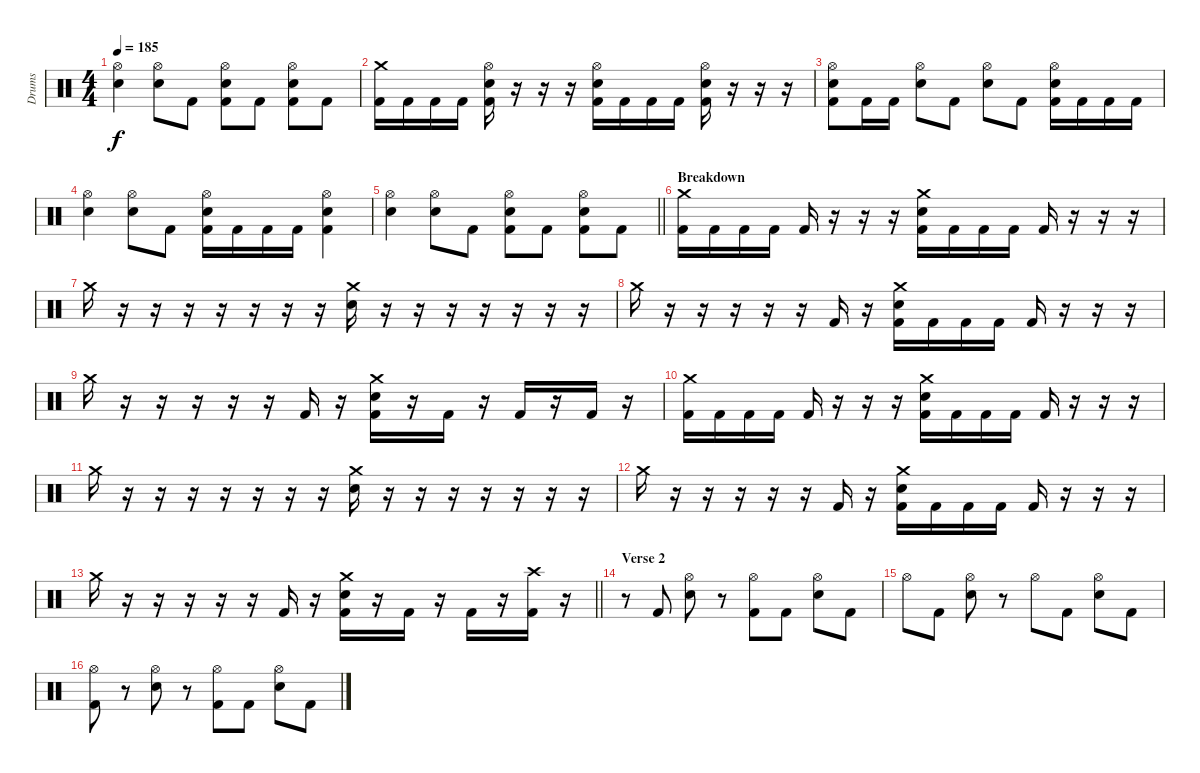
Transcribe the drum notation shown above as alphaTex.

\track ("Drums" "Drums") {instrument percussion}
\staff {score}
\articulation defaults
\ts (4 4)
\tempo 185
\clef neutral
\ks c
("Hi-Hat (open)" "Electric Snare (hit)").4{dy f} ("Hi-Hat (open)" "Electric Snare (hit)").8 "Kick (hit) 2".8 ("Hi-Hat (open)" "Electric Snare (hit)" "Kick (hit) 2").8 "Kick (hit) 2".8 ("Hi-Hat (open)" "Electric Snare (hit)" "Kick (hit) 2").8 "Kick (hit) 2".8 |
("Crash medium (hit)" "Kick (hit) 2").16 "Kick (hit) 2".16 "Kick (hit) 2".16 "Kick (hit) 2".16 ("Hi-Hat (open)" "Electric Snare (hit)" "Kick (hit) 2").16 r.16 r.16 r.16 ("Hi-Hat (open)" "Electric Snare (hit)" "Kick (hit) 2").16 "Kick (hit) 2".16 "Kick (hit) 2".16 "Kick (hit) 2".16 ("Hi-Hat (open)" "Electric Snare (hit)" "Kick (hit) 2").16 r.16 r.16 r.16 |
("Hi-Hat (open)" "Electric Snare (hit)" "Kick (hit) 2").8 "Kick (hit) 2".16 "Kick (hit) 2".16 ("Hi-Hat (open)" "Electric Snare (hit)").8 "Kick (hit) 2".8 ("Hi-Hat (open)" "Electric Snare (hit)").8 "Kick (hit) 2".8 ("Hi-Hat (open)" "Electric Snare (hit)" "Kick (hit) 2").16 "Kick (hit) 2".16 "Kick (hit) 2".16 "Kick (hit) 2".16 |
("Hi-Hat (open)" "Electric Snare (hit)").4 ("Hi-Hat (open)" "Electric Snare (hit)").8 "Kick (hit) 2".8 ("Hi-Hat (open)" "Electric Snare (hit)" "Kick (hit) 2").16 "Kick (hit) 2".16 "Kick (hit) 2".16 "Kick (hit) 2".16 ("Hi-Hat (open)" "Electric Snare (hit)" "Kick (hit) 2").4 |
\barLineRight lightlight
("Hi-Hat (open)" "Electric Snare (hit)").4 ("Hi-Hat (open)" "Electric Snare (hit)").8 "Kick (hit) 2".8 ("Hi-Hat (open)" "Electric Snare (hit)" "Kick (hit) 2").8 "Kick (hit) 2".8 ("Hi-Hat (open)" "Electric Snare (hit)" "Kick (hit) 2").8 "Kick (hit) 2".8 |
\section ("" "Breakdown")
("Crash medium (hit)" "Kick (hit) 2").16 "Kick (hit) 2".16 "Kick (hit) 2".16 "Kick (hit) 2".16 "Kick (hit) 2".16 r.16 r.16 r.16 ("Crash medium (hit)" "Electric Snare (hit)" "Kick (hit) 2").16 "Kick (hit) 2".16 "Kick (hit) 2".16 "Kick (hit) 2".16 "Kick (hit) 2".16 r.16 r.16 r.16 |
"Crash medium (hit)".16 r.16 r.16 r.16 r.16 r.16 r.16 r.16 ("Crash medium (hit)" "Electric Snare (hit)").16 r.16 r.16 r.16 r.16 r.16 r.16 r.16 |
"Crash medium (hit)".16 r.16 r.16 r.16 r.16 r.16 "Kick (hit) 2".16 r.16 ("Crash medium (hit)" "Electric Snare (hit)" "Kick (hit) 2").16 "Kick (hit) 2".16 "Kick (hit) 2".16 "Kick (hit) 2".16 "Kick (hit) 2".16 r.16 r.16 r.16 |
"Crash medium (hit)".16 r.16 r.16 r.16 r.16 r.16 "Kick (hit) 2".16 r.16 ("Crash medium (hit)" "Electric Snare (hit)" "Kick (hit) 2").16 r.16 "Kick (hit) 2".16 r.16 "Kick (hit) 2".16 r.16 "Kick (hit) 2".16 r.16 |
("Crash medium (hit)" "Kick (hit) 2").16 "Kick (hit) 2".16 "Kick (hit) 2".16 "Kick (hit) 2".16 "Kick (hit) 2".16 r.16 r.16 r.16 ("Crash medium (hit)" "Electric Snare (hit)" "Kick (hit) 2").16 "Kick (hit) 2".16 "Kick (hit) 2".16 "Kick (hit) 2".16 "Kick (hit) 2".16 r.16 r.16 r.16 |
"Crash medium (hit)".16 r.16 r.16 r.16 r.16 r.16 r.16 r.16 ("Crash medium (hit)" "Electric Snare (hit)").16 r.16 r.16 r.16 r.16 r.16 r.16 r.16 |
"Crash medium (hit)".16 r.16 r.16 r.16 r.16 r.16 "Kick (hit) 2".16 r.16 ("Crash medium (hit)" "Electric Snare (hit)" "Kick (hit) 2").16 "Kick (hit) 2".16 "Kick (hit) 2".16 "Kick (hit) 2".16 "Kick (hit) 2".16 r.16 r.16 r.16 |
\barLineRight lightlight "Crash medium (hit)".16
r.16 r.16 r.16 r.16 r.16 "Kick (hit) 2".16 r.16 ("Crash medium (hit)" "Electric Snare (hit)" "Kick (hit) 2").16 r.16 "Kick (hit) 2".16 r.16 "Kick (hit) 2".16 r.16 ("Crash high (hit)" "Kick (hit) 2").16 r.16 |
\section ("" "Verse 2")
r.8 "Kick (hit) 2".8 ("Hi-Hat (open)" "Electric Snare (hit)").8 r.8 ("Hi-Hat (open)" "Kick (hit) 2").8 "Kick (hit) 2".8 ("Hi-Hat (open)" "Electric Snare (hit)").8 "Kick (hit) 2".8 |
"Hi-Hat (open)".8 "Kick (hit) 2".8 ("Hi-Hat (open)" "Electric Snare (hit)").8 r.8 "Hi-Hat (open)".8 "Kick (hit) 2".8 ("Hi-Hat (open)" "Electric Snare (hit)").8 "Kick (hit) 2".8 |
("Hi-Hat (open)" "Kick (hit) 2").8 r.8 ("Hi-Hat (open)" "Electric Snare (hit)").8 r.8 ("Hi-Hat (open)" "Kick (hit) 2").8 "Kick (hit) 2".8 ("Hi-Hat (open)" "Electric Snare (hit)").8 "Kick (hit) 2".8
